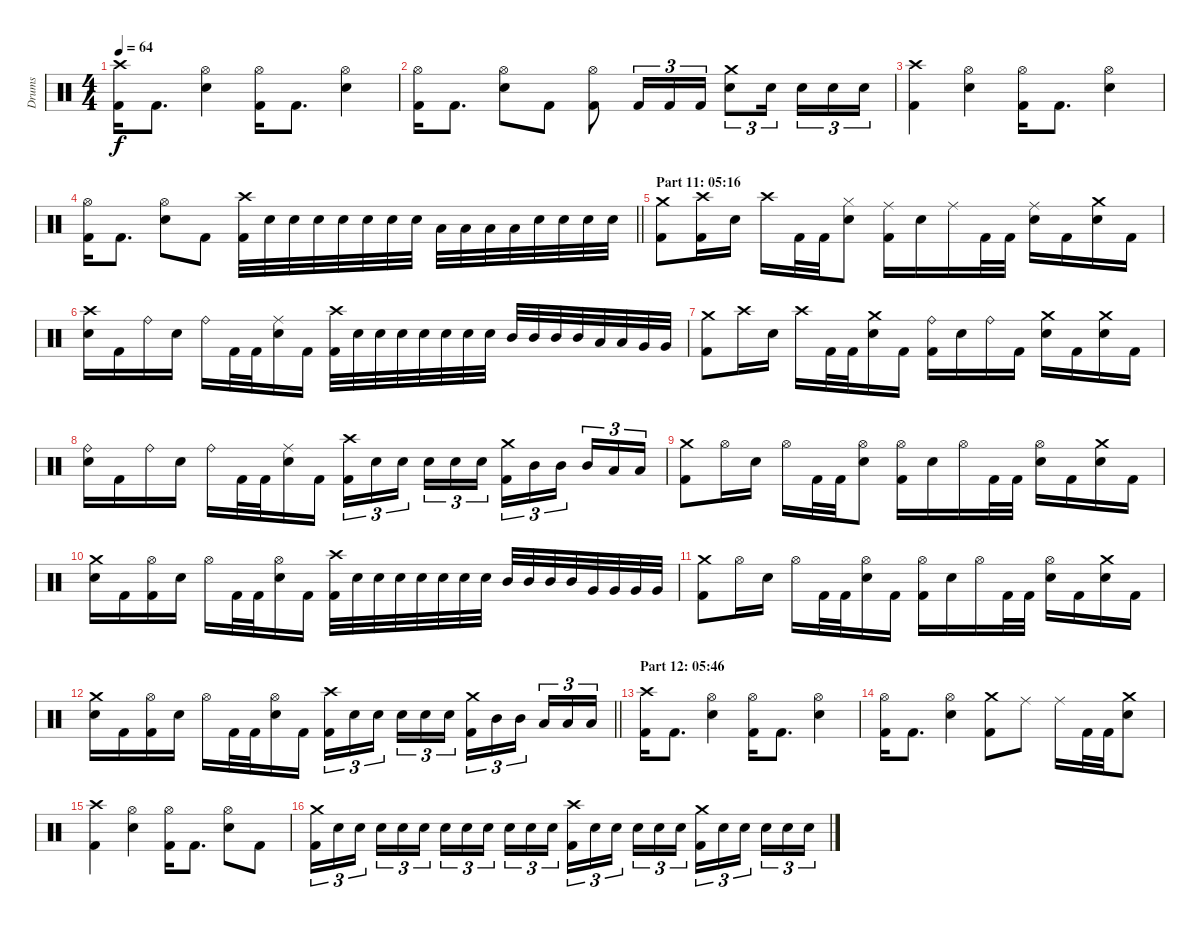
\track ("Drums" "Drums") {instrument percussion}
\staff {score}
\articulation defaults
\ts (4 4)
\tempo 64
\clef neutral
\ks c
("Crash high (hit)" "Kick (hit) 2").16{dy f} "Kick (hit) 2".8{d} ("Hi-Hat (open)" "Electric Snare (hit)").4 ("Hi-Hat (open)" "Kick (hit) 2").16 "Kick (hit) 2".8{d} ("Hi-Hat (open)" "Electric Snare (hit)").4 |
("Hi-Hat (open)" "Kick (hit) 2").16 "Kick (hit) 2".8{d} ("Hi-Hat (open)" "Electric Snare (hit)").8 "Kick (hit) 2".8 ("Hi-Hat (open)" "Kick (hit) 2").8 "Kick (hit) 2".16{tu (3 2)} "Kick (hit) 2".16{tu (3 2)} "Kick (hit) 2".16{tu (3 2)} ("Crash medium (hit)" "Electric Snare (hit)").8{tu (3 2)} "Electric Snare (hit)".16{tu (3 2) beam splitsecondary} "Electric Snare (hit)".16{tu (3 2)} "Electric Snare (hit)".16{tu (3 2)} "Electric Snare (hit)".16{tu (3 2)} |
("Crash high (hit)" "Kick (hit) 2").4 ("Hi-Hat (open)" "Electric Snare (hit)").4 ("Hi-Hat (open)" "Kick (hit) 2").16 "Kick (hit) 2".8{d} ("Hi-Hat (open)" "Electric Snare (hit)").4 |
\barLineRight lightlight
("Hi-Hat (open)" "Kick (hit) 2").16 "Kick (hit) 2".8{d} ("Hi-Hat (open)" "Electric Snare (hit)").8 "Kick (hit) 2".8 ("Crash high (hit)" "Kick (hit) 2").32 "Electric Snare (hit)".32 "Electric Snare (hit)".32 "Electric Snare (hit)".32 "Electric Snare (hit)".32 "Electric Snare (hit)".32 "Electric Snare (hit)".32 "Electric Snare (hit)".32 "Low Tom (hit)".32 "Low Tom (hit)".32 "Low Tom (hit)".32 "Low Tom (hit)".32 "Electric Snare (hit)".32 "Electric Snare (hit)".32 "Electric Snare (hit)".32 "Electric Snare (hit)".32 |
\section ("" "Part 11: 05:16")
("Crash medium (hit)" "Kick (hit) 2").8 ("Crash high (hit)" "Kick (hit) 2").16 "Electric Snare (hit)".16 "Crash high (hit)".16 "Kick (hit) 2".32 "Kick (hit) 2".32 ("Hi-Hat (closed)" "Electric Snare (hit)").8 ("Ride (middle)" "Kick (hit) 2").16 "Electric Snare (hit)".16 "Ride (middle)".16 "Kick (hit) 2".32 "Kick (hit) 2".32 ("Ride (middle)" "Electric Snare (hit)").16 "Kick (hit) 2".16 ("Crash medium (hit)" "Electric Snare (hit)").16 "Kick (hit) 2".16 |
("Crash high (hit)" "Electric Snare (hit)").16 "Kick (hit) 2".16 "Ride (bell)".16 "Electric Snare (hit)".16 "Ride (bell)".16 "Kick (hit) 2".32 "Kick (hit) 2".32 ("Ride (middle)" "Electric Snare (hit)").16 "Kick (hit) 2".16 ("Crash high (hit)" "Kick (hit) 2").32 "Electric Snare (hit)".32 "Electric Snare (hit)".32 "Electric Snare (hit)".32 "Electric Snare (hit)".32 "Electric Snare (hit)".32 "Electric Snare (hit)".32 "Electric Snare (hit)".32 "Mid Tom (hit)".32 "Mid Tom (hit)".32 "Mid Tom (hit)".32 "Mid Tom (hit)".32 "Low Tom (hit)".32 "Low Tom (hit)".32 "Very Low Tom (hit)".32 "Very Low Tom (hit)".32 |
("Crash medium (hit)" "Kick (hit) 2").8 "Crash high (hit)".16 "Electric Snare (hit)".16 "Crash high (hit)".16 "Kick (hit) 2".32 "Kick (hit) 2".32 ("Crash medium (hit)" "Electric Snare (hit)").16 "Kick (hit) 2".16 ("Ride (bell)" "Kick (hit) 2").16 "Electric Snare (hit)".16 "Ride (bell)".16 "Kick (hit) 2".16 ("Crash medium (hit)" "Electric Snare (hit)").16 "Kick (hit) 2".16 ("Crash medium (hit)" "Electric Snare (hit)").16 "Kick (hit) 2".16 |
("Ride (bell)" "Electric Snare (hit)").16 "Kick (hit) 2".16 "Ride (bell)".16 "Electric Snare (hit)".16 "Ride (bell)".16 "Kick (hit) 2".32 "Kick (hit) 2".32 ("Ride (middle)" "Electric Snare (hit)").16 "Kick (hit) 2".16 ("Crash high (hit)" "Kick (hit) 2").16{tu (3 2)} "Electric Snare (hit)".16{tu (3 2)} "Electric Snare (hit)".16{tu (3 2) beam splitsecondary} "Electric Snare (hit)".16{tu (3 2)} "Electric Snare (hit)".16{tu (3 2)} "Electric Snare (hit)".16{tu (3 2)} ("Crash medium (hit)" "Kick (hit) 2").16{tu (3 2)} "Mid Tom (hit)".16{tu (3 2)} "Mid Tom (hit)".16{tu (3 2) beam splitsecondary} "Mid Tom (hit)".16{tu (3 2)} "Low Tom (hit)".16{tu (3 2)} "Low Tom (hit)".16{tu (3 2)} |
("Crash medium (hit)" "Kick (hit) 2").8 "Hi-Hat (open)".16 "Electric Snare (hit)".16 "Hi-Hat (open)".16 "Kick (hit) 2".32 "Kick (hit) 2".32 ("Hi-Hat (open)" "Electric Snare (hit)").8 ("Hi-Hat (open)" "Kick (hit) 2").16 "Electric Snare (hit)".16 "Hi-Hat (open)".16 "Kick (hit) 2".32 "Kick (hit) 2".32 ("Hi-Hat (open)" "Electric Snare (hit)").16 "Kick (hit) 2".16 ("Crash medium (hit)" "Electric Snare (hit)").16 "Kick (hit) 2".16 |
("Crash medium (hit)" "Electric Snare (hit)").16 "Kick (hit) 2".16 ("Hi-Hat (open)" "Kick (hit) 2").16 "Electric Snare (hit)".16 "Hi-Hat (open)".16 "Kick (hit) 2".32 "Kick (hit) 2".32 ("Hi-Hat (open)" "Electric Snare (hit)").16 "Kick (hit) 2".16 ("Crash high (hit)" "Kick (hit) 2").32 "Electric Snare (hit)".32 "Electric Snare (hit)".32 "Electric Snare (hit)".32 "Electric Snare (hit)".32 "Electric Snare (hit)".32 "Electric Snare (hit)".32 "Electric Snare (hit)".32 "Mid Tom (hit)".32 "Mid Tom (hit)".32 "Mid Tom (hit)".32 "Mid Tom (hit)".32 "Very Low Tom (hit)".32 "Very Low Tom (hit)".32 "Very Low Tom (hit)".32 "Very Low Tom (hit)".32 |
("Crash medium (hit)" "Kick (hit) 2").8 "Hi-Hat (open)".16 "Electric Snare (hit)".16 "Hi-Hat (open)".16 "Kick (hit) 2".32 "Kick (hit) 2".32 ("Hi-Hat (open)" "Electric Snare (hit)").16 "Kick (hit) 2".16 ("Hi-Hat (open)" "Kick (hit) 2").16 "Electric Snare (hit)".16 "Hi-Hat (open)".16 "Kick (hit) 2".32 "Kick (hit) 2".32 ("Hi-Hat (open)" "Electric Snare (hit)").16 "Kick (hit) 2".16 ("Crash medium (hit)" "Electric Snare (hit)").16 "Kick (hit) 2".16 |
\barLineRight lightlight
("Crash medium (hit)" "Electric Snare (hit)").16 "Kick (hit) 2".16 ("Hi-Hat (open)" "Kick (hit) 2").16 "Electric Snare (hit)".16 "Hi-Hat (open)".16 "Kick (hit) 2".32 "Kick (hit) 2".32 ("Hi-Hat (open)" "Electric Snare (hit)").16 "Kick (hit) 2".16 ("Crash high (hit)" "Kick (hit) 2").16{tu (3 2)} "Electric Snare (hit)".16{tu (3 2)} "Electric Snare (hit)".16{tu (3 2) beam splitsecondary} "Electric Snare (hit)".16{tu (3 2)} "Electric Snare (hit)".16{tu (3 2)} "Electric Snare (hit)".16{tu (3 2)} ("Crash medium (hit)" "Kick (hit) 2").16{tu (3 2)} "Mid Tom (hit)".16{tu (3 2)} "Mid Tom (hit)".16{tu (3 2) beam splitsecondary} "Low Tom (hit)".16{tu (3 2)} "Low Tom (hit)".16{tu (3 2)} "Low Tom (hit)".16{tu (3 2)} |
\section ("" "Part 12: 05:46")
("Crash high (hit)" "Kick (hit) 2").16 "Kick (hit) 2".8{d} ("Hi-Hat (open)" "Electric Snare (hit)").4 ("Hi-Hat (open)" "Kick (hit) 2").16 "Kick (hit) 2".8{d} ("Hi-Hat (open)" "Electric Snare (hit)").4 |
("Hi-Hat (open)" "Kick (hit) 2").16 "Kick (hit) 2".8{d} ("Hi-Hat (open)" "Electric Snare (hit)").4 ("Crash medium (hit)" "Kick (hit) 2").8 "Ride (middle)".8 "Ride (middle)".16 "Kick (hit) 2".32 "Kick (hit) 2".32 ("Crash medium (hit)" "Electric Snare (hit)").8 |
("Crash high (hit)" "Kick (hit) 2").4 ("Hi-Hat (open)" "Electric Snare (hit)").4 ("Hi-Hat (open)" "Kick (hit) 2").16 "Kick (hit) 2".8{d} ("Hi-Hat (open)" "Electric Snare (hit)").8 "Kick (hit) 2".8 |
("Crash medium (hit)" "Kick (hit) 2").16{tu (3 2)} "Electric Snare (hit)".16{tu (3 2)} "Electric Snare (hit)".16{tu (3 2) beam splitsecondary} "Electric Snare (hit)".16{tu (3 2)} "Electric Snare (hit)".16{tu (3 2)} "Electric Snare (hit)".16{tu (3 2)} "Electric Snare (hit)".16{tu (3 2)} "Electric Snare (hit)".16{tu (3 2)} "Electric Snare (hit)".16{tu (3 2) beam splitsecondary} "Electric Snare (hit)".16{tu (3 2)} "Electric Snare (hit)".16{tu (3 2)} "Electric Snare (hit)".16{tu (3 2)} ("Crash high (hit)" "Kick (hit) 2").16{tu (3 2)} "Electric Snare (hit)".16{tu (3 2)} "Electric Snare (hit)".16{tu (3 2) beam splitsecondary} "Electric Snare (hit)".16{tu (3 2)} "Electric Snare (hit)".16{tu (3 2)} "Electric Snare (hit)".16{tu (3 2)} ("Crash medium (hit)" "Kick (hit) 2").16{tu (3 2)} "Electric Snare (hit)".16{tu (3 2)} "Electric Snare (hit)".16{tu (3 2) beam splitsecondary} "Electric Snare (hit)".16{tu (3 2)} "Electric Snare (hit)".16{tu (3 2)} "Electric Snare (hit)".16{tu (3 2)}
